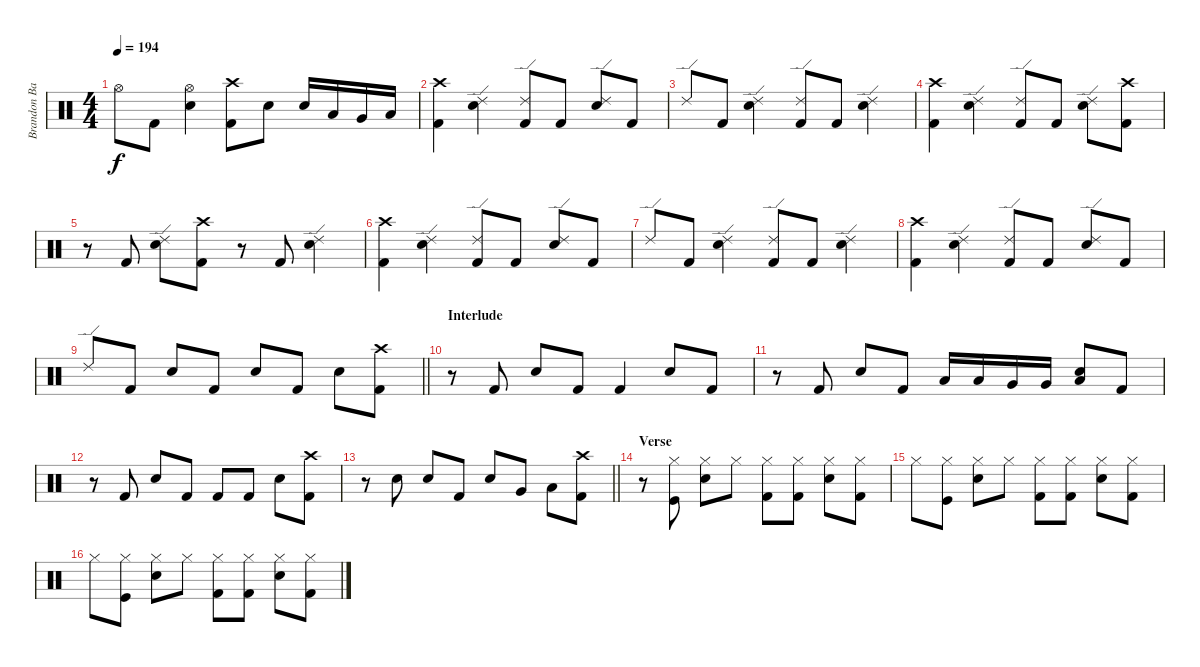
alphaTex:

\track ("Brandon Barnes - Drums" "Brandon Ba") {instrument percussion}
\staff {score}
\articulation defaults
\ts (4 4)
\tempo 194
\clef neutral
\ks c "Hi-Hat (open)".8{dy f} "Kick (hit) 2".8
("Snare (hit) 2" "Hi-Hat (open)").4 ("Crash high (hit)" "Kick (hit) 2").8 "Snare (hit) 2".8 "Snare (hit) 2".16 "Low Tom (hit)".16 "Very Low Tom (hit)".16 "Low Floor Tom (hit)".16 |
("Crash high (hit)" "Kick (hit) 2").4 ("Snare (hit) 2" "Ride (edge) 2").4 ("Kick (hit) 2" "Ride (edge) 2").8 "Kick (hit) 2".8 ("Snare (hit) 2" "Ride (edge) 2").8 "Kick (hit) 2".8 |
"Ride (edge) 2".8 "Kick (hit) 2".8 ("Snare (hit) 2" "Ride (edge) 2").4 ("Kick (hit) 2" "Ride (edge) 2").8 "Kick (hit) 2".8 ("Snare (hit) 2" "Ride (edge) 2").4 |
("Crash high (hit)" "Kick (hit) 2").4 ("Snare (hit) 2" "Ride (edge) 2").4 ("Kick (hit) 2" "Ride (edge) 2").8 "Kick (hit) 2".8 ("Snare (hit) 2" "Ride (edge) 2").8 ("Kick (hit) 2" "Crash high (hit)").8 |
r.8 "Kick (hit) 2".8 ("Snare (hit) 2" "Ride (edge) 2").8 ("Kick (hit) 2" "Crash high (hit)").8 r.8 "Kick (hit) 2".8 ("Snare (hit) 2" "Ride (edge) 2").4 |
("Crash high (hit)" "Kick (hit) 2").4 ("Snare (hit) 2" "Ride (edge) 2").4 ("Kick (hit) 2" "Ride (edge) 2").8 "Kick (hit) 2".8 ("Snare (hit) 2" "Ride (edge) 2").8 "Kick (hit) 2".8 |
"Ride (edge) 2".8 "Kick (hit) 2".8 ("Snare (hit) 2" "Ride (edge) 2").4 ("Kick (hit) 2" "Ride (edge) 2").8 "Kick (hit) 2".8 ("Snare (hit) 2" "Ride (edge) 2").4 |
("Crash high (hit)" "Kick (hit) 2").4 ("Snare (hit) 2" "Ride (edge) 2").4 ("Kick (hit) 2" "Ride (edge) 2").8 "Kick (hit) 2".8 ("Snare (hit) 2" "Ride (edge) 2").8 "Kick (hit) 2".8 |
\barLineRight lightlight "Ride (edge) 2".8 "Kick (hit) 2".8 "Snare (hit) 2".8 "Kick (hit) 2".8 "Snare (hit) 2".8 "Kick (hit) 2".8 "Snare (hit) 2".8
("Kick (hit) 2" "Crash high (hit)").8 |
\section ("" "Interlude")
r.8 "Kick (hit) 2".8 "Snare (hit) 2".8 "Kick (hit) 2".8 "Kick (hit) 2".4 "Snare (hit) 2".8 "Kick (hit) 2".8 |
r.8 "Kick (hit) 2".8 "Snare (hit) 2".8 "Kick (hit) 2".8 "Low Tom (hit)".16 "Low Tom (hit)".16 "Very Low Tom (hit)".16 "Very Low Tom (hit)".16 ("Low Floor Tom (hit)" "Snare (hit) 2").8 "Kick (hit) 2".8 |
r.8 "Kick (hit) 2".8 "Snare (hit) 2".8 "Kick (hit) 2".8 "Kick (hit) 2".8 "Kick (hit) 2".8 "Snare (hit) 2".8 ("Kick (hit) 2" "Crash high (hit)").8 |
\barLineRight lightlight
r.8 "Snare (hit) 2".8 "Snare (hit) 2".8 "Kick (hit) 2".8 "Snare (hit) 2".8 "Very Low Tom (hit)".8 "Low Floor Tom (hit)".8 ("Kick (hit) 2" "Crash high (hit)").8 |
\section ("" "Verse")
r.8 ("Kick (hit)" "Hi-Hat (closed)").8 ("Snare (hit) 2" "Hi-Hat (closed)").8 "Hi-Hat (closed)".8 ("Kick (hit) 2" "Hi-Hat (closed)").8 ("Kick (hit) 2" "Hi-Hat (closed)").8 ("Snare (hit) 2" "Hi-Hat (closed)").8 ("Kick (hit) 2" "Hi-Hat (closed)").8 |
"Hi-Hat (closed)".8 ("Kick (hit)" "Hi-Hat (closed)").8 ("Snare (hit) 2" "Hi-Hat (closed)").8 "Hi-Hat (closed)".8 ("Kick (hit) 2" "Hi-Hat (closed)").8 ("Kick (hit) 2" "Hi-Hat (closed)").8 ("Snare (hit) 2" "Hi-Hat (closed)").8 ("Kick (hit) 2" "Hi-Hat (closed)").8 |
"Hi-Hat (closed)".8 ("Kick (hit)" "Hi-Hat (closed)").8 ("Snare (hit) 2" "Hi-Hat (closed)").8 "Hi-Hat (closed)".8 ("Kick (hit) 2" "Hi-Hat (closed)").8 ("Kick (hit) 2" "Hi-Hat (closed)").8 ("Snare (hit) 2" "Hi-Hat (closed)").8 ("Kick (hit) 2" "Hi-Hat (closed)").8
